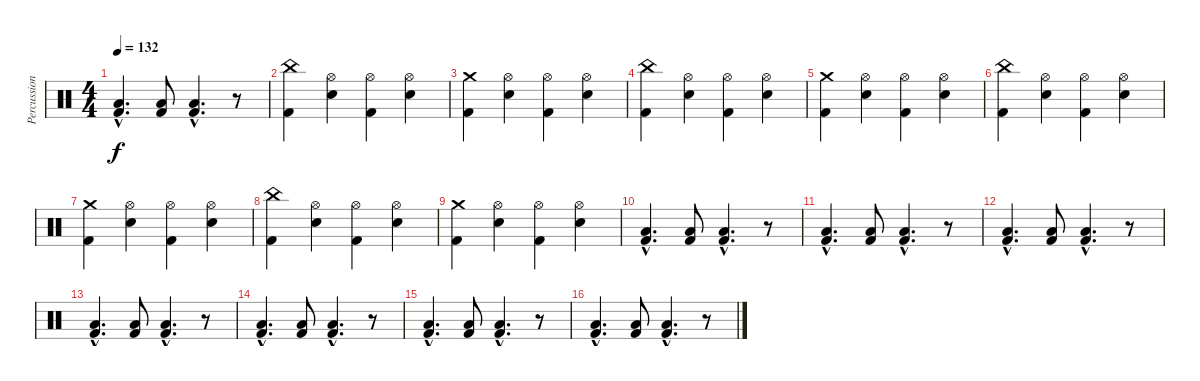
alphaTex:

\track ("Percussioni" "Percussion") {instrument percussion}
\staff {score}
\articulation defaults
\ts (4 4)
\tempo 132
\clef neutral
\ks c
("Low Floor Tom (hit)"{hac} "Kick (hit) 2"{hac}).4{d dy f} ("Low Floor Tom (hit)" "Kick (hit) 2").8 ("Low Floor Tom (hit)"{hac} "Kick (hit) 2"{hac}).4{d} r.8 |
("China (hit)" "Kick (hit) 2").4 ("Hi-Hat (open)" "Snare (hit) 2").4 ("Hi-Hat (open)" "Kick (hit) 2").4 ("Hi-Hat (open)" "Snare (hit) 2").4 |
("Crash medium (hit)" "Kick (hit) 2").4 ("Hi-Hat (open)" "Snare (hit) 2").4 ("Hi-Hat (open)" "Kick (hit) 2").4 ("Hi-Hat (open)" "Snare (hit) 2").4 |
("China (hit)" "Kick (hit) 2").4 ("Hi-Hat (open)" "Snare (hit) 2").4 ("Hi-Hat (open)" "Kick (hit) 2").4 ("Hi-Hat (open)" "Snare (hit) 2").4 |
("Crash medium (hit)" "Kick (hit) 2").4 ("Hi-Hat (open)" "Snare (hit) 2").4 ("Hi-Hat (open)" "Kick (hit) 2").4 ("Hi-Hat (open)" "Snare (hit) 2").4 |
("China (hit)" "Kick (hit) 2").4 ("Hi-Hat (open)" "Snare (hit) 2").4 ("Hi-Hat (open)" "Kick (hit) 2").4 ("Hi-Hat (open)" "Snare (hit) 2").4 |
("Crash medium (hit)" "Kick (hit) 2").4 ("Hi-Hat (open)" "Snare (hit) 2").4 ("Hi-Hat (open)" "Kick (hit) 2").4 ("Hi-Hat (open)" "Snare (hit) 2").4 |
("China (hit)" "Kick (hit) 2").4 ("Hi-Hat (open)" "Snare (hit) 2").4 ("Hi-Hat (open)" "Kick (hit) 2").4 ("Hi-Hat (open)" "Snare (hit) 2").4 |
("Crash medium (hit)" "Kick (hit) 2").4 ("Hi-Hat (open)" "Snare (hit) 2").4 ("Hi-Hat (open)" "Kick (hit) 2").4 ("Hi-Hat (open)" "Snare (hit) 2").4 |
("Low Floor Tom (hit)"{hac} "Kick (hit) 2"{hac}).4{d} ("Low Floor Tom (hit)" "Kick (hit) 2").8 ("Low Floor Tom (hit)"{hac} "Kick (hit) 2"{hac}).4{d} r.8 |
("Low Floor Tom (hit)"{hac} "Kick (hit) 2"{hac}).4{d} ("Low Floor Tom (hit)" "Kick (hit) 2").8 ("Low Floor Tom (hit)"{hac} "Kick (hit) 2"{hac}).4{d} r.8 |
("Low Floor Tom (hit)"{hac} "Kick (hit) 2"{hac}).4{d} ("Low Floor Tom (hit)" "Kick (hit) 2").8 ("Low Floor Tom (hit)"{hac} "Kick (hit) 2"{hac}).4{d} r.8 |
("Low Floor Tom (hit)"{hac} "Kick (hit) 2"{hac}).4{d} ("Low Floor Tom (hit)" "Kick (hit) 2").8 ("Low Floor Tom (hit)"{hac} "Kick (hit) 2"{hac}).4{d} r.8 |
("Low Floor Tom (hit)"{hac} "Kick (hit) 2"{hac}).4{d} ("Low Floor Tom (hit)" "Kick (hit) 2").8 ("Low Floor Tom (hit)"{hac} "Kick (hit) 2"{hac}).4{d} r.8 |
("Low Floor Tom (hit)"{hac} "Kick (hit) 2"{hac}).4{d} ("Low Floor Tom (hit)" "Kick (hit) 2").8 ("Low Floor Tom (hit)"{hac} "Kick (hit) 2"{hac}).4{d} r.8 |
("Low Floor Tom (hit)"{hac} "Kick (hit) 2"{hac}).4{d} ("Low Floor Tom (hit)" "Kick (hit) 2").8 ("Low Floor Tom (hit)"{hac} "Kick (hit) 2"{hac}).4{d} r.8
